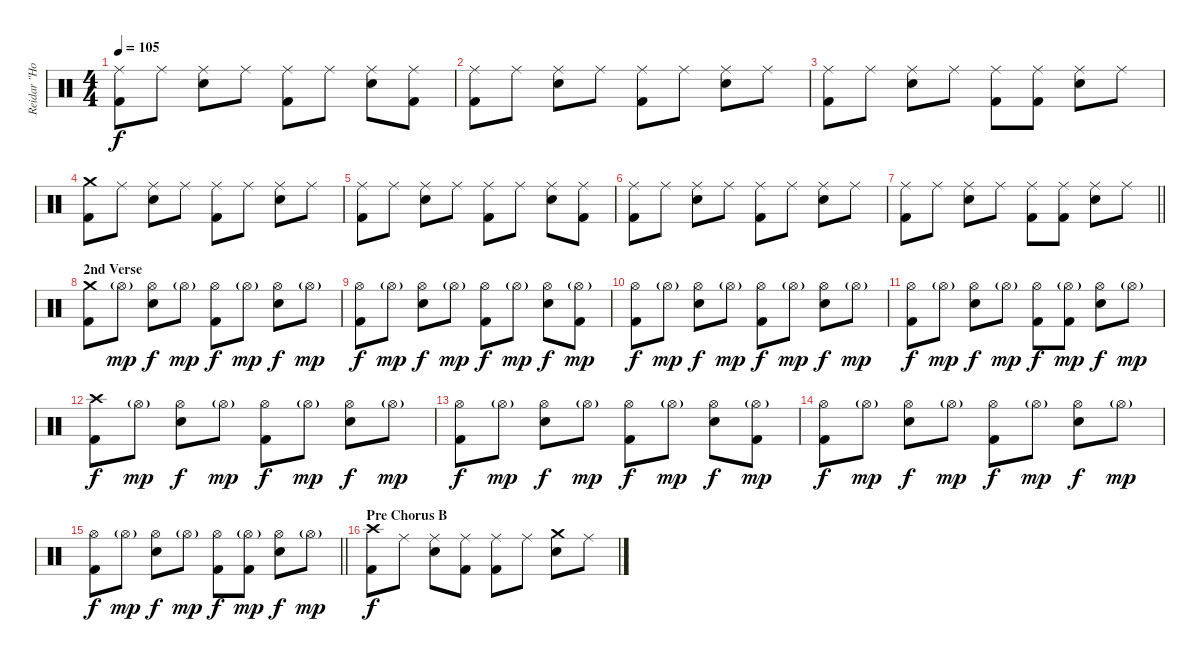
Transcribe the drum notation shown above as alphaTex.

\track ("Reidar \"Horgh\" Horghagen " "Reidar \"Ho") {instrument percussion}
\staff {score}
\articulation defaults
\ts (4 4)
\tempo 105
\clef neutral
\ks c
("Ride (middle)" "Kick (hit) 2").8{dy f} "Ride (middle)".8 ("Ride (middle)" "Snare (hit) 2").8 "Ride (middle)".8 ("Ride (middle)" "Kick (hit) 2").8 "Ride (middle)".8 ("Ride (middle)" "Snare (hit) 2").8 ("Ride (middle)" "Kick (hit) 2").8 |
("Ride (middle)" "Kick (hit) 2").8 "Ride (middle)".8 ("Ride (middle)" "Snare (hit) 2").8 "Ride (middle)".8 ("Ride (middle)" "Kick (hit) 2").8 "Ride (middle)".8 ("Ride (middle)" "Snare (hit) 2").8 "Ride (middle)".8 |
("Ride (middle)" "Kick (hit) 2").8 "Ride (middle)".8 ("Ride (middle)" "Snare (hit) 2").8 "Ride (middle)".8 ("Ride (middle)" "Kick (hit) 2").8 ("Ride (middle)" "Kick (hit) 2").8 ("Ride (middle)" "Snare (hit) 2").8 "Ride (middle)".8 |
("Crash medium (hit)" "Kick (hit) 2").8 "Ride (middle)".8 ("Ride (middle)" "Snare (hit) 2").8 "Ride (middle)".8 ("Ride (middle)" "Kick (hit) 2").8 "Ride (middle)".8 ("Ride (middle)" "Snare (hit) 2").8 "Ride (middle)".8 |
("Ride (middle)" "Kick (hit) 2").8 "Ride (middle)".8 ("Ride (middle)" "Snare (hit) 2").8 "Ride (middle)".8 ("Ride (middle)" "Kick (hit) 2").8 "Ride (middle)".8 ("Ride (middle)" "Snare (hit) 2").8 ("Ride (middle)" "Kick (hit) 2").8 |
("Ride (middle)" "Kick (hit) 2").8 "Ride (middle)".8 ("Ride (middle)" "Snare (hit) 2").8 "Ride (middle)".8 ("Ride (middle)" "Kick (hit) 2").8 "Ride (middle)".8 ("Ride (middle)" "Snare (hit) 2").8 "Ride (middle)".8 |
\barLineRight lightlight
("Ride (middle)" "Kick (hit) 2").8 "Ride (middle)".8 ("Ride (middle)" "Snare (hit) 2").8 "Ride (middle)".8 ("Ride (middle)" "Kick (hit) 2").8 ("Ride (middle)" "Kick (hit) 2").8 ("Ride (middle)" "Snare (hit) 2").8 "Ride (middle)".8 |
\section ("" "2nd Verse")
("Crash medium (hit)" "Kick (hit) 2").8 "Hi-Hat (open)"{g}.8{dy mp} ("Hi-Hat (open)" "Snare (hit) 2").8{dy f} "Hi-Hat (open)"{g}.8{dy mp} ("Hi-Hat (open)" "Kick (hit) 2").8{dy f} "Hi-Hat (open)"{g}.8{dy mp} ("Hi-Hat (open)" "Snare (hit) 2").8{dy f} "Hi-Hat (open)"{g}.8{dy mp} |
("Hi-Hat (open)" "Kick (hit) 2").8{dy f} "Hi-Hat (open)"{g}.8{dy mp} ("Hi-Hat (open)" "Snare (hit) 2").8{dy f} "Hi-Hat (open)"{g}.8{dy mp} ("Hi-Hat (open)" "Kick (hit) 2").8{dy f} "Hi-Hat (open)"{g}.8{dy mp} ("Hi-Hat (open)" "Snare (hit) 2").8{dy f} ("Hi-Hat (open)"{g} "Kick (hit) 2").8{dy mp} |
("Hi-Hat (open)" "Kick (hit) 2").8{dy f} "Hi-Hat (open)"{g}.8{dy mp} ("Hi-Hat (open)" "Snare (hit) 2").8{dy f} "Hi-Hat (open)"{g}.8{dy mp} ("Hi-Hat (open)" "Kick (hit) 2").8{dy f} "Hi-Hat (open)"{g}.8{dy mp} ("Hi-Hat (open)" "Snare (hit) 2").8{dy f} "Hi-Hat (open)"{g}.8{dy mp} |
("Hi-Hat (open)" "Kick (hit) 2").8{dy f} "Hi-Hat (open)"{g}.8{dy mp} ("Hi-Hat (open)" "Snare (hit) 2").8{dy f} "Hi-Hat (open)"{g}.8{dy mp} ("Hi-Hat (open)" "Kick (hit) 2").8{dy f} ("Hi-Hat (open)"{g} "Kick (hit) 2").8{dy mp} ("Hi-Hat (open)" "Snare (hit) 2").8{dy f} "Hi-Hat (open)"{g}.8{dy mp} |
("Crash high (hit)" "Kick (hit) 2").8{dy f} "Hi-Hat (open)"{g}.8{dy mp} ("Hi-Hat (open)" "Snare (hit) 2").8{dy f} "Hi-Hat (open)"{g}.8{dy mp} ("Hi-Hat (open)" "Kick (hit) 2").8{dy f} "Hi-Hat (open)"{g}.8{dy mp} ("Hi-Hat (open)" "Snare (hit) 2").8{dy f} "Hi-Hat (open)"{g}.8{dy mp} |
("Hi-Hat (open)" "Kick (hit) 2").8{dy f} "Hi-Hat (open)"{g}.8{dy mp} ("Hi-Hat (open)" "Snare (hit) 2").8{dy f} "Hi-Hat (open)"{g}.8{dy mp} ("Hi-Hat (open)" "Kick (hit) 2").8{dy f} "Hi-Hat (open)"{g}.8{dy mp} ("Hi-Hat (open)" "Snare (hit) 2").8{dy f} ("Hi-Hat (open)"{g} "Kick (hit) 2").8{dy mp} |
("Hi-Hat (open)" "Kick (hit) 2").8{dy f} "Hi-Hat (open)"{g}.8{dy mp} ("Hi-Hat (open)" "Snare (hit) 2").8{dy f} "Hi-Hat (open)"{g}.8{dy mp} ("Hi-Hat (open)" "Kick (hit) 2").8{dy f} "Hi-Hat (open)"{g}.8{dy mp} ("Hi-Hat (open)" "Snare (hit) 2").8{dy f} "Hi-Hat (open)"{g}.8{dy mp} |
\barLineRight lightlight
("Hi-Hat (open)" "Kick (hit) 2").8{dy f} "Hi-Hat (open)"{g}.8{dy mp} ("Hi-Hat (open)" "Snare (hit) 2").8{dy f} "Hi-Hat (open)"{g}.8{dy mp} ("Hi-Hat (open)" "Kick (hit) 2").8{dy f} ("Hi-Hat (open)"{g} "Kick (hit) 2").8{dy mp} ("Hi-Hat (open)" "Snare (hit) 2").8{dy f} "Hi-Hat (open)"{g}.8{dy mp} |
\section ("" "Pre Chorus B")
("Crash high (hit)" "Kick (hit) 2").8{dy f} "Ride (middle)".8 ("Ride (middle)" "Snare (hit) 2").8 ("Ride (middle)" "Kick (hit) 2").8 ("Ride (middle)" "Kick (hit) 2").8 "Ride (middle)".8 ("Crash medium (hit)" "Snare (hit) 2").8 "Ride (middle)".8
